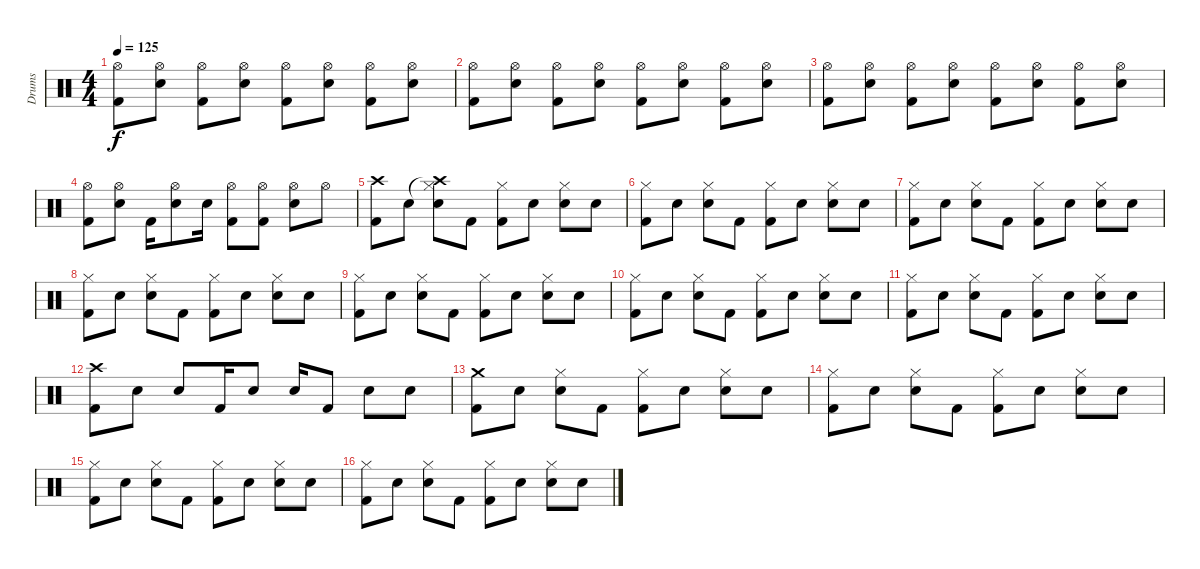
\track ("Drums" "Drums") {instrument percussion}
\staff {score}
\articulation defaults
\ts (4 4)
\tempo 125
\clef neutral
\ks c
("Hi-Hat (open)" "Kick (hit) 2").8{dy f} ("Hi-Hat (open)" "Snare (hit) 2").8 ("Hi-Hat (open)" "Kick (hit) 2").8 ("Hi-Hat (open)" "Snare (hit) 2").8 ("Hi-Hat (open)" "Kick (hit) 2").8 ("Hi-Hat (open)" "Snare (hit) 2").8 ("Hi-Hat (open)" "Kick (hit) 2").8 ("Hi-Hat (open)" "Snare (hit) 2").8 |
("Hi-Hat (open)" "Kick (hit) 2").8 ("Hi-Hat (open)" "Snare (hit) 2").8 ("Hi-Hat (open)" "Kick (hit) 2").8 ("Hi-Hat (open)" "Snare (hit) 2").8 ("Hi-Hat (open)" "Kick (hit) 2").8 ("Hi-Hat (open)" "Snare (hit) 2").8 ("Hi-Hat (open)" "Kick (hit) 2").8 ("Hi-Hat (open)" "Snare (hit) 2").8 |
("Hi-Hat (open)" "Kick (hit) 2").8 ("Hi-Hat (open)" "Snare (hit) 2").8 ("Hi-Hat (open)" "Kick (hit) 2").8 ("Hi-Hat (open)" "Snare (hit) 2").8 ("Hi-Hat (open)" "Kick (hit) 2").8 ("Hi-Hat (open)" "Snare (hit) 2").8 ("Hi-Hat (open)" "Kick (hit) 2").8 ("Hi-Hat (open)" "Snare (hit) 2").8 |
("Hi-Hat (open)" "Kick (hit) 2").8 ("Hi-Hat (open)" "Snare (hit) 2").8 "Kick (hit) 2".16 ("Hi-Hat (open)" "Snare (hit) 2").8 "Snare (hit) 2".16 ("Hi-Hat (open)" "Kick (hit) 2").8 ("Hi-Hat (open)" "Kick (hit) 2").8 ("Hi-Hat (open)" "Snare (hit) 2").8 "Hi-Hat (open)".8 |
("Crash high (hit)" "Kick (hit) 2").8 "Snare (hit)".8 ("Crash high (hit)"{t} "Hi-Hat (closed)" "Snare (hit) 2").8 "Kick (hit) 2".8 ("Hi-Hat (closed)" "Kick (hit) 2").8 "Snare (hit)".8 ("Hi-Hat (closed)" "Snare (hit) 2").8 "Snare (hit)".8 |
("Hi-Hat (closed)" "Kick (hit) 2").8 "Snare (hit)".8 ("Hi-Hat (closed)" "Snare (hit) 2").8 "Kick (hit) 2".8 ("Hi-Hat (closed)" "Kick (hit) 2").8 "Snare (hit)".8 ("Hi-Hat (closed)" "Snare (hit) 2").8 "Snare (hit)".8 |
("Hi-Hat (closed)" "Kick (hit) 2").8 "Snare (hit)".8 ("Hi-Hat (closed)" "Snare (hit) 2").8 "Kick (hit) 2".8 ("Hi-Hat (closed)" "Kick (hit) 2").8 "Snare (hit)".8 ("Hi-Hat (closed)" "Snare (hit) 2").8 "Snare (hit)".8 |
("Hi-Hat (closed)" "Kick (hit) 2").8 "Snare (hit)".8 ("Hi-Hat (closed)" "Snare (hit) 2").8 "Kick (hit) 2".8 ("Hi-Hat (closed)" "Kick (hit) 2").8 "Snare (hit)".8 ("Hi-Hat (closed)" "Snare (hit) 2").8 "Snare (hit)".8 |
("Hi-Hat (closed)" "Kick (hit) 2").8 "Snare (hit)".8 ("Hi-Hat (closed)" "Snare (hit) 2").8 "Kick (hit) 2".8 ("Hi-Hat (closed)" "Kick (hit) 2").8 "Snare (hit)".8 ("Hi-Hat (closed)" "Snare (hit) 2").8 "Snare (hit)".8 |
("Hi-Hat (closed)" "Kick (hit) 2").8 "Snare (hit)".8 ("Hi-Hat (closed)" "Snare (hit) 2").8 "Kick (hit) 2".8 ("Hi-Hat (closed)" "Kick (hit) 2").8 "Snare (hit)".8 ("Hi-Hat (closed)" "Snare (hit) 2").8 "Snare (hit)".8 |
("Hi-Hat (closed)" "Kick (hit) 2").8 "Snare (hit)".8 ("Hi-Hat (closed)" "Snare (hit) 2").8 "Kick (hit) 2".8 ("Hi-Hat (closed)" "Kick (hit) 2").8 "Snare (hit)".8 ("Hi-Hat (closed)" "Snare (hit) 2").8 "Snare (hit)".8 |
("Crash high (hit)" "Kick (hit) 2").8 "Snare (hit)".8 "Snare (hit) 2".8 "Kick (hit) 2".16 "Snare (hit) 2".8 "Snare (hit) 2".16 "Kick (hit) 2".8 "Snare (hit) 2".8 "Snare (hit)".8 |
("Crash medium (hit)" "Kick (hit) 2").8 "Snare (hit)".8 ("Hi-Hat (closed)" "Snare (hit) 2").8 "Kick (hit) 2".8 ("Hi-Hat (closed)" "Kick (hit) 2").8 "Snare (hit)".8 ("Hi-Hat (closed)" "Snare (hit) 2").8 "Snare (hit)".8 |
("Hi-Hat (closed)" "Kick (hit) 2").8 "Snare (hit)".8 ("Hi-Hat (closed)" "Snare (hit) 2").8 "Kick (hit) 2".8 ("Hi-Hat (closed)" "Kick (hit) 2").8 "Snare (hit)".8 ("Hi-Hat (closed)" "Snare (hit) 2").8 "Snare (hit)".8 |
("Hi-Hat (closed)" "Kick (hit) 2").8 "Snare (hit)".8 ("Hi-Hat (closed)" "Snare (hit) 2").8 "Kick (hit) 2".8 ("Hi-Hat (closed)" "Kick (hit) 2").8 "Snare (hit)".8 ("Hi-Hat (closed)" "Snare (hit) 2").8 "Snare (hit)".8 |
("Hi-Hat (closed)" "Kick (hit) 2").8 "Snare (hit)".8 ("Hi-Hat (closed)" "Snare (hit) 2").8 "Kick (hit) 2".8 ("Hi-Hat (closed)" "Kick (hit) 2").8 "Snare (hit)".8 ("Hi-Hat (closed)" "Snare (hit) 2").8 "Snare (hit)".8
